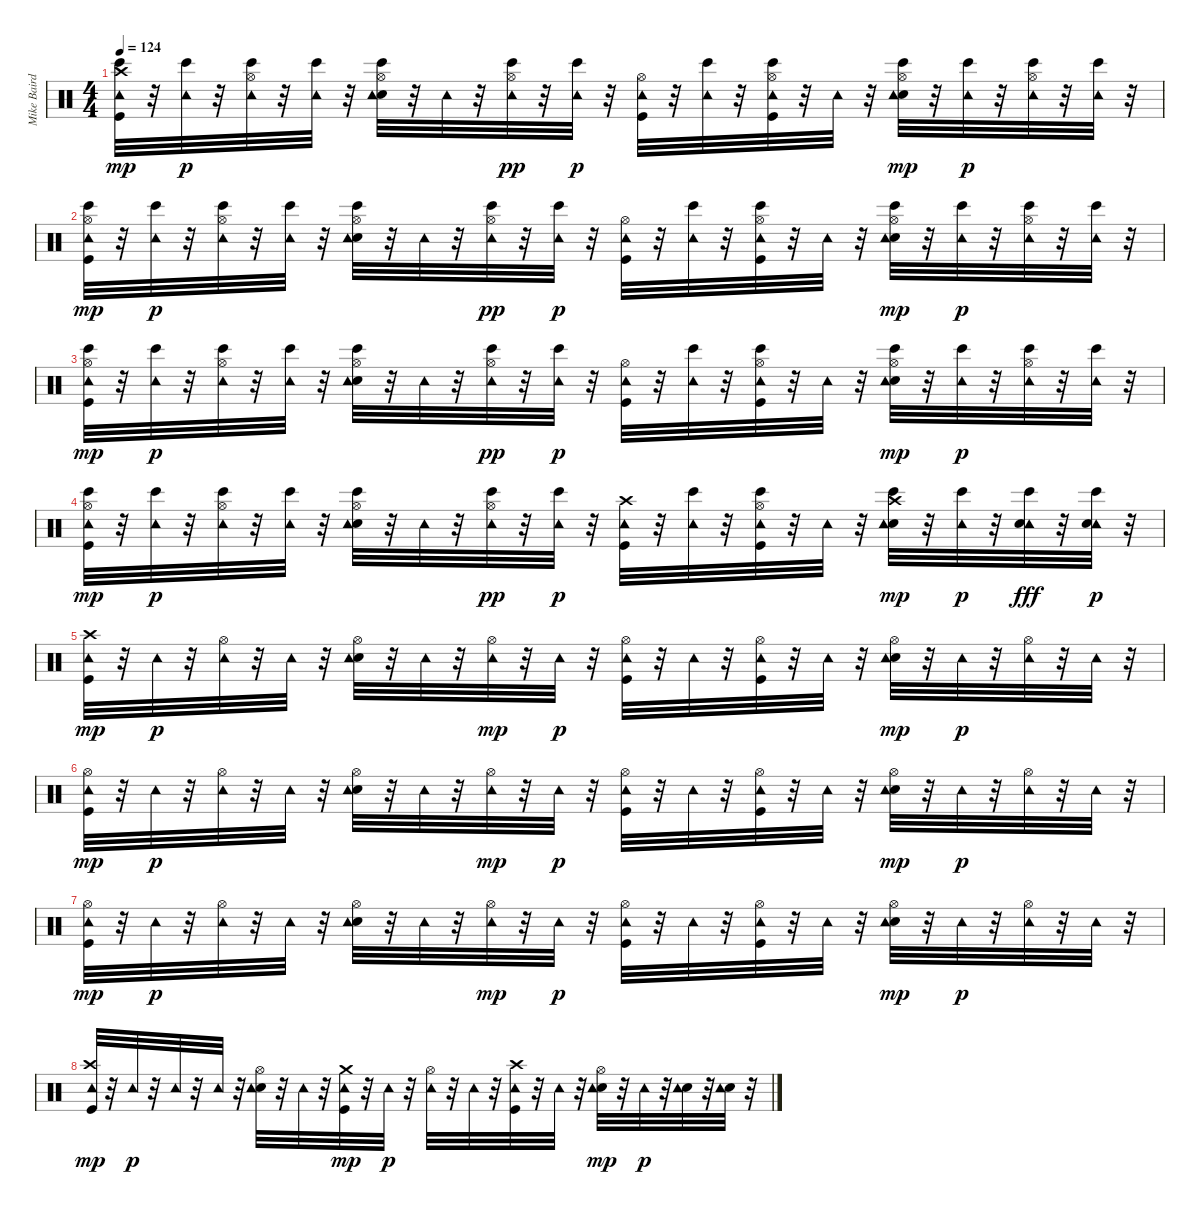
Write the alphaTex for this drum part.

\track ("Mike Baird [drums]" "Mike Baird") {instrument percussion}
\staff {score}
\articulation defaults
\ts (4 4)
\tempo 124
\clef neutral
\ks c
("Bongo High (hit)" "Kick (hit)" "Crash high (hit)" "Tambourine (hit)").32{dy mp} r.32 ("Tambourine (hit)" "Bongo High (hit)").32{dy p} r.32 ("Hi-Hat (open)" "Tambourine (hit)" "Bongo High (hit)").32 r.32 ("Tambourine (hit)" "Bongo High (hit)").32 r.32 ("Electric Snare (hit)" "Hi-Hat (open)" "Bongo High (hit)" "Tambourine (hit)").32 r.32 "Tambourine (hit)".32 r.32 ("Hi-Hat (open)" "Tambourine (hit)" "Bongo High (hit)").32{dy pp} r.32 ("Bongo High (hit)" "Tambourine (hit)").32{dy p} r.32 ("Kick (hit)" "Hi-Hat (open)" "Tambourine (hit)").32 r.32 ("Bongo High (hit)" "Tambourine (hit)").32 r.32 ("Bongo High (hit)" "Kick (hit)" "Hi-Hat (open)" "Tambourine (hit)").32 r.32 "Tambourine (hit)".32 r.32 ("Bongo High (hit)" "Electric Snare (hit)" "Hi-Hat (open)" "Tambourine (hit)").32{dy mp} r.32 ("Tambourine (hit)" "Bongo High (hit)").32{dy p} r.32 ("Bongo High (hit)" "Hi-Hat (open)" "Tambourine (hit)").32 r.32 ("Tambourine (hit)" "Bongo High (hit)").32 r.32 |
("Bongo High (hit)" "Kick (hit)" "Hi-Hat (open)" "Tambourine (hit)").32{dy mp} r.32 ("Tambourine (hit)" "Bongo High (hit)").32{dy p} r.32 ("Hi-Hat (open)" "Tambourine (hit)" "Bongo High (hit)").32 r.32 ("Tambourine (hit)" "Bongo High (hit)").32 r.32 ("Electric Snare (hit)" "Hi-Hat (open)" "Bongo High (hit)" "Tambourine (hit)").32 r.32 "Tambourine (hit)".32 r.32 ("Hi-Hat (open)" "Tambourine (hit)" "Bongo High (hit)").32{dy pp} r.32 ("Bongo High (hit)" "Tambourine (hit)").32{dy p} r.32 ("Kick (hit)" "Hi-Hat (open)" "Tambourine (hit)").32 r.32 ("Bongo High (hit)" "Tambourine (hit)").32 r.32 ("Bongo High (hit)" "Kick (hit)" "Hi-Hat (open)" "Tambourine (hit)").32 r.32 "Tambourine (hit)".32 r.32 ("Bongo High (hit)" "Electric Snare (hit)" "Hi-Hat (open)" "Tambourine (hit)").32{dy mp} r.32 ("Tambourine (hit)" "Bongo High (hit)").32{dy p} r.32 ("Bongo High (hit)" "Hi-Hat (open)" "Tambourine (hit)").32 r.32 ("Tambourine (hit)" "Bongo High (hit)").32 r.32 |
("Bongo High (hit)" "Kick (hit)" "Hi-Hat (open)" "Tambourine (hit)").32{dy mp} r.32 ("Tambourine (hit)" "Bongo High (hit)").32{dy p} r.32 ("Hi-Hat (open)" "Tambourine (hit)" "Bongo High (hit)").32 r.32 ("Tambourine (hit)" "Bongo High (hit)").32 r.32 ("Electric Snare (hit)" "Hi-Hat (open)" "Bongo High (hit)" "Tambourine (hit)").32 r.32 "Tambourine (hit)".32 r.32 ("Hi-Hat (open)" "Tambourine (hit)" "Bongo High (hit)").32{dy pp} r.32 ("Bongo High (hit)" "Tambourine (hit)").32{dy p} r.32 ("Kick (hit)" "Hi-Hat (open)" "Tambourine (hit)").32 r.32 ("Bongo High (hit)" "Tambourine (hit)").32 r.32 ("Bongo High (hit)" "Kick (hit)" "Hi-Hat (open)" "Tambourine (hit)").32 r.32 "Tambourine (hit)".32 r.32 ("Bongo High (hit)" "Electric Snare (hit)" "Hi-Hat (open)" "Tambourine (hit)").32{dy mp} r.32 ("Tambourine (hit)" "Bongo High (hit)").32{dy p} r.32 ("Bongo High (hit)" "Hi-Hat (open)" "Tambourine (hit)").32 r.32 ("Tambourine (hit)" "Bongo High (hit)").32 r.32 |
("Bongo High (hit)" "Kick (hit)" "Hi-Hat (open)" "Tambourine (hit)").32{dy mp} r.32 ("Tambourine (hit)" "Bongo High (hit)").32{dy p} r.32 ("Hi-Hat (open)" "Tambourine (hit)" "Bongo High (hit)").32 r.32 ("Tambourine (hit)" "Bongo High (hit)").32 r.32 ("Electric Snare (hit)" "Hi-Hat (open)" "Bongo High (hit)" "Tambourine (hit)").32 r.32 "Tambourine (hit)".32 r.32 ("Hi-Hat (open)" "Tambourine (hit)" "Bongo High (hit)").32{dy pp} r.32 ("Bongo High (hit)" "Tambourine (hit)").32{dy p} r.32 ("Kick (hit)" "Crash high (hit)" "Tambourine (hit)").32 r.32 ("Bongo High (hit)" "Tambourine (hit)").32 r.32 ("Bongo High (hit)" "Kick (hit)" "Hi-Hat (open)" "Tambourine (hit)").32 r.32 "Tambourine (hit)".32 r.32 ("Bongo High (hit)" "Electric Snare (hit)" "Crash high (hit)" "Tambourine (hit)").32{dy mp} r.32 ("Tambourine (hit)" "Bongo High (hit)").32{dy p} r.32 ("Bongo High (hit)" "Tambourine (hit)" "Electric Snare (hit)").32{dy fff} r.32 ("Tambourine (hit)" "Bongo High (hit)" "Electric Snare (hit)").32{dy p} r.32 |
("Kick (hit)" "Crash high (hit)" "Tambourine (hit)").32{dy mp} r.32 "Tambourine (hit)".32{dy p} r.32 ("Hi-Hat (open)" "Tambourine (hit)").32 r.32 "Tambourine (hit)".32 r.32 ("Electric Snare (hit)" "Hi-Hat (open)" "Tambourine (hit)").32 r.32 "Tambourine (hit)".32 r.32 ("Hi-Hat (open)" "Tambourine (hit)").32{dy mp} r.32 "Tambourine (hit)".32{dy p} r.32 ("Kick (hit)" "Hi-Hat (open)" "Tambourine (hit)").32 r.32 "Tambourine (hit)".32 r.32 ("Kick (hit)" "Hi-Hat (open)" "Tambourine (hit)").32 r.32 "Tambourine (hit)".32 r.32 ("Electric Snare (hit)" "Hi-Hat (open)" "Tambourine (hit)").32{dy mp} r.32 "Tambourine (hit)".32{dy p} r.32 ("Hi-Hat (open)" "Tambourine (hit)").32 r.32 "Tambourine (hit)".32 r.32 |
("Kick (hit)" "Hi-Hat (open)" "Tambourine (hit)").32{dy mp} r.32 "Tambourine (hit)".32{dy p} r.32 ("Hi-Hat (open)" "Tambourine (hit)").32 r.32 "Tambourine (hit)".32 r.32 ("Electric Snare (hit)" "Hi-Hat (open)" "Tambourine (hit)").32 r.32 "Tambourine (hit)".32 r.32 ("Hi-Hat (open)" "Tambourine (hit)").32{dy mp} r.32 "Tambourine (hit)".32{dy p} r.32 ("Kick (hit)" "Hi-Hat (open)" "Tambourine (hit)").32 r.32 "Tambourine (hit)".32 r.32 ("Kick (hit)" "Hi-Hat (open)" "Tambourine (hit)").32 r.32 "Tambourine (hit)".32 r.32 ("Electric Snare (hit)" "Hi-Hat (open)" "Tambourine (hit)").32{dy mp} r.32 "Tambourine (hit)".32{dy p} r.32 ("Hi-Hat (open)" "Tambourine (hit)").32 r.32 "Tambourine (hit)".32 r.32 |
("Kick (hit)" "Hi-Hat (open)" "Tambourine (hit)").32{dy mp} r.32 "Tambourine (hit)".32{dy p} r.32 ("Hi-Hat (open)" "Tambourine (hit)").32 r.32 "Tambourine (hit)".32 r.32 ("Electric Snare (hit)" "Hi-Hat (open)" "Tambourine (hit)").32 r.32 "Tambourine (hit)".32 r.32 ("Hi-Hat (open)" "Tambourine (hit)").32{dy mp} r.32 "Tambourine (hit)".32{dy p} r.32 ("Kick (hit)" "Hi-Hat (open)" "Tambourine (hit)").32 r.32 "Tambourine (hit)".32 r.32 ("Kick (hit)" "Hi-Hat (open)" "Tambourine (hit)").32 r.32 "Tambourine (hit)".32 r.32 ("Electric Snare (hit)" "Hi-Hat (open)" "Tambourine (hit)").32{dy mp} r.32 "Tambourine (hit)".32{dy p} r.32 ("Hi-Hat (open)" "Tambourine (hit)").32 r.32 "Tambourine (hit)".32 r.32 |
("Kick (hit)" "Crash high (hit)" "Tambourine (hit)").32{dy mp} r.32 "Tambourine (hit)".32{dy p} r.32 "Tambourine (hit)".32 r.32 "Tambourine (hit)".32 r.32 ("Electric Snare (hit)" "Hi-Hat (open)" "Tambourine (hit)").32 r.32 "Tambourine (hit)".32 r.32 ("Kick (hit)" "Crash medium (hit)" "Tambourine (hit)").32{dy mp} r.32 "Tambourine (hit)".32{dy p} r.32 ("Hi-Hat (open)" "Tambourine (hit)").32 r.32 "Tambourine (hit)".32 r.32 ("Kick (hit)" "Crash high (hit)" "Tambourine (hit)").32 r.32 "Tambourine (hit)".32 r.32 ("Electric Snare (hit)" "Hi-Hat (open)" "Tambourine (hit)").32{dy mp} r.32 "Tambourine (hit)".32{dy p} r.32 ("Electric Snare (hit)" "Tambourine (hit)").32 r.32 ("Electric Snare (hit)" "Tambourine (hit)").32 r.32
